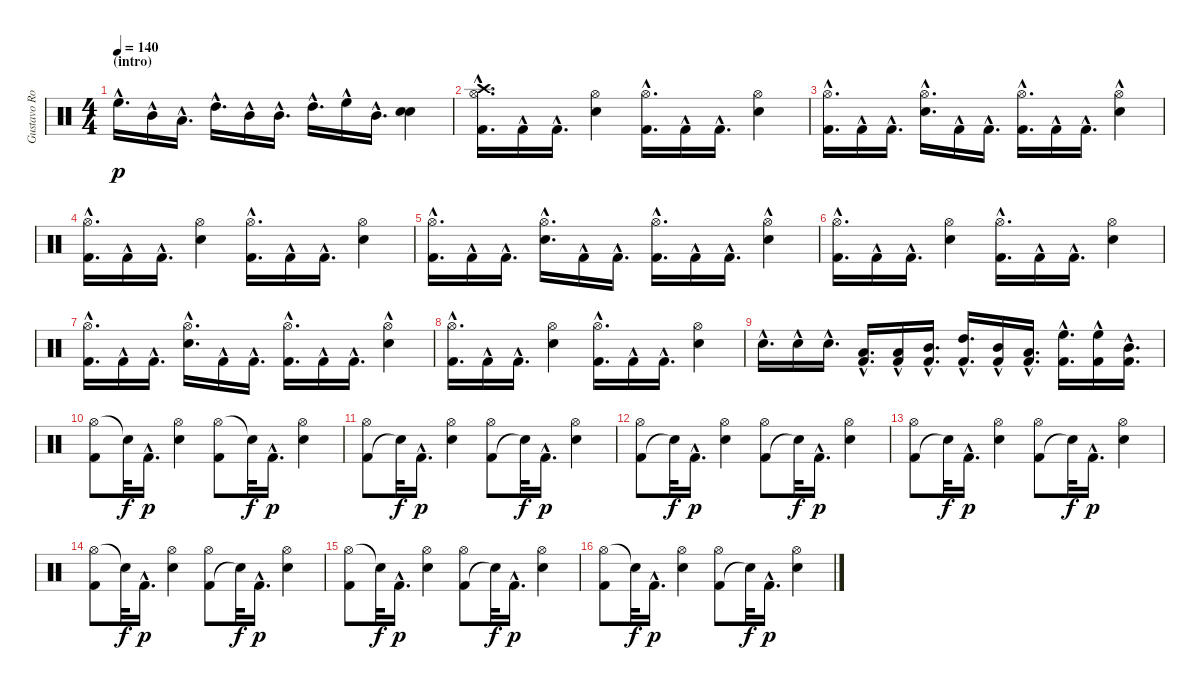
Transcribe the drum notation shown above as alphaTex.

\track ("Gustavo Rowek" "Gustavo Ro") {instrument percussion}
\staff {score}
\articulation defaults
\ts (4 4)
\section ("" "(intro)")
\tempo 140
\clef neutral
\ks c "High Floor Tom (hit)"{hac}.16{d dy p} "Mid Tom (hit)"{hac}.16 "Low Tom (hit)"{hac}.16{d} "High Tom (hit)"{hac}.16{d} "Mid Tom (hit)"{hac}.16 "Mid Tom (hit)"{hac}.16{d} "High Tom (hit)"{hac}.16{d} "High Floor Tom (hit)"{hac}.16 "Mid Tom (hit)"{hac}.16{d}
("Snare (hit) 2" "Snare (hit) 2").4 |
("Crash high (hit)" "Hi-Hat (open)" "Kick (hit) 2"{hac}).16{d} "Kick (hit) 2"{hac}.16 "Kick (hit) 2"{hac}.16{d} ("Hi-Hat (open)" "Snare (hit) 2").4 ("Hi-Hat (open)" "Kick (hit) 2"{hac}).16{d} "Kick (hit) 2"{hac}.16 "Kick (hit) 2"{hac}.16{d} ("Hi-Hat (open)" "Snare (hit) 2").4 |
("Hi-Hat (open)" "Kick (hit) 2"{hac}).16{d} "Kick (hit) 2"{hac}.16 "Kick (hit) 2"{hac}.16{d} ("Hi-Hat (open)" "Snare (hit) 2"{hac}).16{d} "Kick (hit) 2"{hac}.16 "Kick (hit) 2"{hac}.16{d} ("Hi-Hat (open)" "Kick (hit) 2"{hac}).16{d} "Kick (hit) 2"{hac}.16 "Kick (hit) 2"{hac}.16{d} ("Hi-Hat (open)" "Electric Snare (hit)"{hac}).4 |
("Kick (hit) 2"{hac} "Hi-Hat (open)").16{d} "Kick (hit) 2"{hac}.16 "Kick (hit) 2"{hac}.16{d} ("Snare (hit) 2" "Hi-Hat (open)").4 ("Kick (hit) 2"{hac} "Hi-Hat (open)").16{d} "Kick (hit) 2"{hac}.16 "Kick (hit) 2"{hac}.16{d} ("Snare (hit) 2" "Hi-Hat (open)").4 |
("Kick (hit) 2"{hac} "Hi-Hat (open)").16{d} "Kick (hit) 2"{hac}.16 "Kick (hit) 2"{hac}.16{d} ("Snare (hit) 2"{hac} "Hi-Hat (open)").16{d} "Kick (hit) 2"{hac}.16 "Kick (hit) 2"{hac}.16{d} ("Kick (hit) 2"{hac} "Hi-Hat (open)").16{d} "Kick (hit) 2"{hac}.16 "Kick (hit) 2"{hac}.16{d} ("Electric Snare (hit)"{hac} "Hi-Hat (open)").4 |
("Kick (hit) 2"{hac} "Hi-Hat (open)").16{d} "Kick (hit) 2"{hac}.16 "Kick (hit) 2"{hac}.16{d} ("Snare (hit) 2" "Hi-Hat (open)").4 ("Kick (hit) 2"{hac} "Hi-Hat (open)").16{d} "Kick (hit) 2"{hac}.16 "Kick (hit) 2"{hac}.16{d} ("Snare (hit) 2" "Hi-Hat (open)").4 |
("Kick (hit) 2"{hac} "Hi-Hat (open)").16{d} "Kick (hit) 2"{hac}.16 "Kick (hit) 2"{hac}.16{d} ("Snare (hit) 2"{hac} "Hi-Hat (open)").16{d} "Kick (hit) 2"{hac}.16 "Kick (hit) 2"{hac}.16{d} ("Kick (hit) 2"{hac} "Hi-Hat (open)").16{d} "Kick (hit) 2"{hac}.16 "Kick (hit) 2"{hac}.16{d} ("Electric Snare (hit)"{hac} "Hi-Hat (open)").4 |
("Kick (hit) 2"{hac} "Hi-Hat (open)").16{d} "Kick (hit) 2"{hac}.16 "Kick (hit) 2"{hac}.16{d} ("Snare (hit) 2" "Hi-Hat (open)").4 ("Kick (hit) 2"{hac} "Hi-Hat (open)").16{d} "Kick (hit) 2"{hac}.16 "Kick (hit) 2"{hac}.16{d} ("Snare (hit) 2" "Hi-Hat (open)").4 |
"Snare (hit) 2"{hac}.16{d} "Snare (hit) 2"{hac}.16 "Snare (hit) 2"{hac}.16{d} ("Low Tom (hit)"{hac} "Kick (hit) 2"{hac}).16{d} ("Low Tom (hit)"{hac} "Kick (hit) 2"{hac}).16 ("Mid Tom (hit)"{hac} "Kick (hit) 2"{hac}).16{d} ("High Tom (hit)"{hac} "Kick (hit) 2"{hac}).16{d} ("Mid Tom (hit)"{hac} "Kick (hit) 2"{hac}).16 ("Low Tom (hit)"{hac} "Kick (hit) 2"{hac}).16{d} ("High Floor Tom (hit)"{hac} "Kick (hit) 2"{hac}).16{d} ("High Floor Tom (hit)"{hac} "Kick (hit) 2"{hac}).16 ("Mid Tom (hit)"{hac} "Kick (hit) 2"{hac}).16{d} |
("Hi-Hat (open)" "Kick (hit) 2").8 "Snare (hit)"{t}.32{dy f} "Kick (hit) 2"{hac}.16{d dy p} ("Hi-Hat (open)" "Snare (hit) 2").4 ("Hi-Hat (open)" "Kick (hit) 2").8 "Snare (hit)"{t}.32{dy f} "Kick (hit) 2"{hac}.16{d dy p} ("Hi-Hat (open)" "Snare (hit) 2").4 |
("Kick (hit) 2" "Hi-Hat (open)").8 "Snare (hit)"{t}.32{dy f} "Kick (hit) 2"{hac}.16{d dy p} ("Snare (hit) 2" "Hi-Hat (open)").4 ("Kick (hit) 2" "Hi-Hat (open)").8 "Snare (hit)"{t}.32{dy f} "Kick (hit) 2"{hac}.16{d dy p} ("Snare (hit) 2" "Hi-Hat (open)").4 |
("Kick (hit) 2" "Hi-Hat (open)").8 "Snare (hit)"{t}.32{dy f} "Kick (hit) 2"{hac}.16{d dy p} ("Snare (hit) 2" "Hi-Hat (open)").4 ("Kick (hit) 2" "Hi-Hat (open)").8 "Snare (hit)"{t}.32{dy f} "Kick (hit) 2"{hac}.16{d dy p} ("Hi-Hat (open)" "Snare (hit) 2").4 |
("Kick (hit) 2" "Hi-Hat (open)").8 "Snare (hit)"{t}.32{dy f} "Kick (hit) 2"{hac}.16{d dy p} ("Hi-Hat (open)" "Snare (hit) 2").4 ("Kick (hit) 2" "Hi-Hat (open)").8 "Snare (hit)"{t}.32{dy f} "Kick (hit) 2"{hac}.16{d dy p} ("Hi-Hat (open)" "Snare (hit) 2").4 |
("Hi-Hat (open)" "Kick (hit) 2").8 "Snare (hit)"{t}.32{dy f} "Kick (hit) 2"{hac}.16{d dy p} ("Hi-Hat (open)" "Snare (hit) 2").4 ("Kick (hit) 2" "Hi-Hat (open)").8 "Snare (hit)"{t}.32{dy f} "Kick (hit) 2"{hac}.16{d dy p} ("Hi-Hat (open)" "Snare (hit) 2").4 |
("Hi-Hat (open)" "Kick (hit) 2").8 "Snare (hit)"{t}.32{dy f} "Kick (hit) 2"{hac}.16{d dy p} ("Hi-Hat (open)" "Snare (hit) 2").4 ("Kick (hit) 2" "Hi-Hat (open)").8 "Snare (hit)"{t}.32{dy f} "Kick (hit) 2"{hac}.16{d dy p} ("Hi-Hat (open)" "Snare (hit) 2").4 |
("Hi-Hat (open)" "Kick (hit) 2").8 "Snare (hit)"{t}.32{dy f} "Kick (hit) 2"{hac}.16{d dy p} ("Hi-Hat (open)" "Snare (hit) 2").4 ("Kick (hit) 2" "Hi-Hat (open)").8 "Snare (hit)"{t}.32{dy f} "Kick (hit) 2"{hac}.16{d dy p} ("Hi-Hat (open)" "Snare (hit) 2").4
